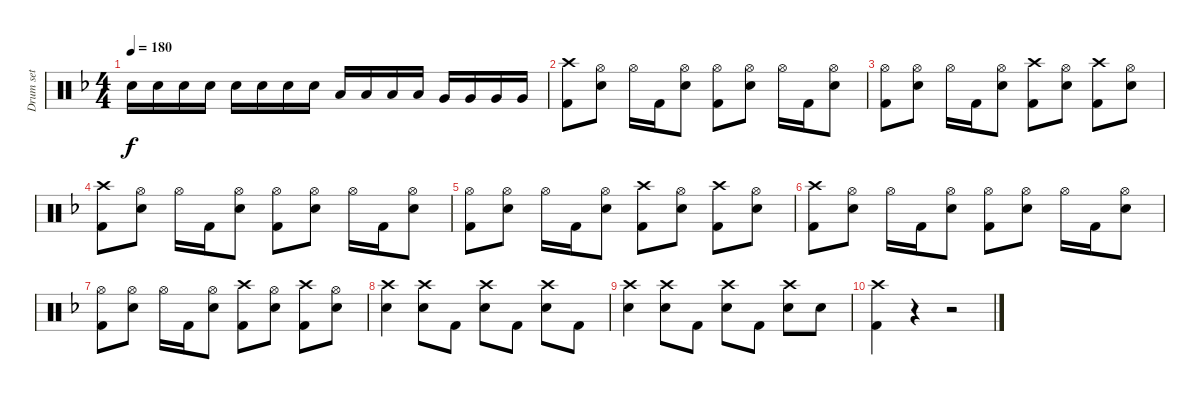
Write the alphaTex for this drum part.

\track ("Drum set" "Drum set") {instrument percussion}
\staff {score}
\articulation defaults
\ts (4 4)
\tempo 180
\clef neutral
\ks f "Electric Snare (hit)".16{dy f} "Electric Snare (hit)".16 "Electric Snare (hit)".16 "Electric Snare (hit)".16 "Electric Snare (hit)".16 "Electric Snare (hit)".16 "Electric Snare (hit)".16 "Electric Snare (hit)".16 "Low Tom (hit)".16 "Low Tom (hit)".16 "Low Tom (hit)".16 "Low Tom (hit)".16 "Very Low Tom (hit)".16 "Very Low Tom (hit)".16 "Very Low Tom (hit)".16 "Very Low Tom (hit)".16
|
("Crash high (hit)" "Kick (hit) 2").8 ("Hi-Hat (open)" "Electric Snare (hit)").8 "Hi-Hat (open)".16 "Kick (hit) 2".16 ("Hi-Hat (open)" "Electric Snare (hit)").8 ("Hi-Hat (open)" "Kick (hit) 2").8 ("Hi-Hat (open)" "Electric Snare (hit)").8 "Hi-Hat (open)".16 "Kick (hit) 2".16 ("Hi-Hat (open)" "Electric Snare (hit)").8 |
("Hi-Hat (open)" "Kick (hit) 2").8 ("Hi-Hat (open)" "Electric Snare (hit)").8 "Hi-Hat (open)".16 "Kick (hit) 2".16 ("Hi-Hat (open)" "Electric Snare (hit)").8 ("Crash high (hit)" "Kick (hit) 2").8 ("Hi-Hat (open)" "Electric Snare (hit)").8 ("Crash high (hit)" "Kick (hit) 2").8 ("Hi-Hat (open)" "Electric Snare (hit)").8 |
("Crash high (hit)" "Kick (hit) 2").8 ("Hi-Hat (open)" "Electric Snare (hit)").8 "Hi-Hat (open)".16 "Kick (hit) 2".16 ("Hi-Hat (open)" "Electric Snare (hit)").8 ("Hi-Hat (open)" "Kick (hit) 2").8 ("Hi-Hat (open)" "Electric Snare (hit)").8 "Hi-Hat (open)".16 "Kick (hit) 2".16 ("Hi-Hat (open)" "Electric Snare (hit)").8 |
("Hi-Hat (open)" "Kick (hit) 2").8 ("Hi-Hat (open)" "Electric Snare (hit)").8 "Hi-Hat (open)".16 "Kick (hit) 2".16 ("Hi-Hat (open)" "Electric Snare (hit)").8 ("Crash high (hit)" "Kick (hit) 2").8 ("Hi-Hat (open)" "Electric Snare (hit)").8 ("Crash high (hit)" "Kick (hit) 2").8 ("Hi-Hat (open)" "Electric Snare (hit)").8 |
("Crash high (hit)" "Kick (hit) 2").8 ("Hi-Hat (open)" "Electric Snare (hit)").8 "Hi-Hat (open)".16 "Kick (hit) 2".16 ("Hi-Hat (open)" "Electric Snare (hit)").8 ("Hi-Hat (open)" "Kick (hit) 2").8 ("Hi-Hat (open)" "Electric Snare (hit)").8 "Hi-Hat (open)".16 "Kick (hit) 2".16 ("Hi-Hat (open)" "Electric Snare (hit)").8 |
("Hi-Hat (open)" "Kick (hit) 2").8 ("Hi-Hat (open)" "Electric Snare (hit)").8 "Hi-Hat (open)".16 "Kick (hit) 2".16 ("Hi-Hat (open)" "Electric Snare (hit)").8 ("Crash high (hit)" "Kick (hit) 2").8 ("Hi-Hat (open)" "Electric Snare (hit)").8 ("Crash high (hit)" "Kick (hit) 2").8 ("Hi-Hat (open)" "Electric Snare (hit)").8 |
("Crash high (hit)" "Electric Snare (hit)").4 ("Crash high (hit)" "Electric Snare (hit)").8 "Kick (hit) 2".8 ("Crash high (hit)" "Electric Snare (hit)").8 "Kick (hit) 2".8 ("Crash high (hit)" "Electric Snare (hit)").8 "Kick (hit) 2".8 |
("Crash high (hit)" "Electric Snare (hit)").4 ("Crash high (hit)" "Electric Snare (hit)").8 "Kick (hit) 2".8 ("Crash high (hit)" "Electric Snare (hit)").8 "Kick (hit) 2".8 ("Crash high (hit)" "Electric Snare (hit)").8 "Electric Snare (hit)".8 |
("Crash high (hit)" "Kick (hit) 2").4 r.4 r.2
